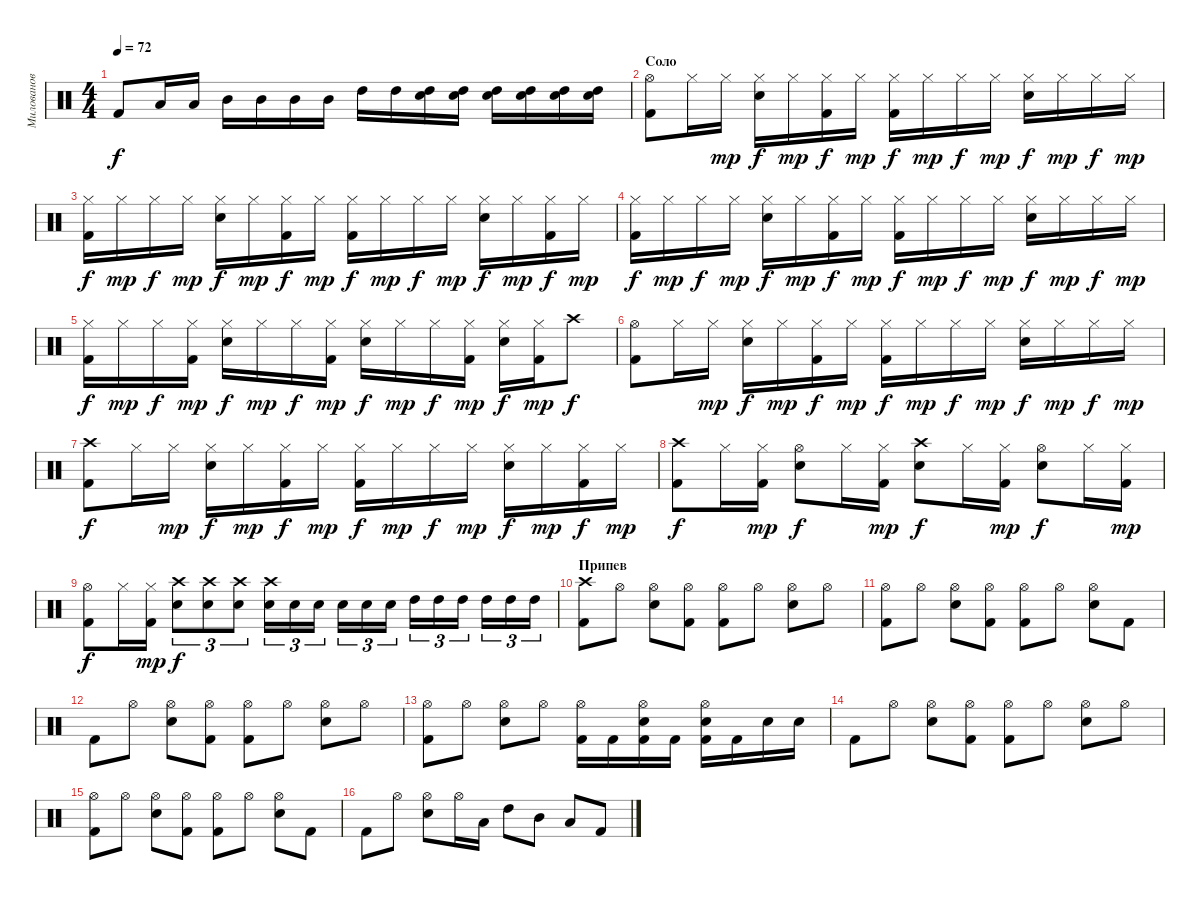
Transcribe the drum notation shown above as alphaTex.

\track ("Милованов" "Милованов") {instrument percussion}
\staff {score}
\articulation defaults
\ts (4 4)
\tempo 72
\clef neutral
\ks c "Kick (hit) 2".8{dy f} "Low Tom (hit)".16 "Low Tom (hit)".16 "Mid Tom (hit)".16 "Mid Tom (hit)".16 "Mid Tom (hit)".16 "Mid Tom (hit)".16 "High Tom (hit)".16 "High Tom (hit)".16
("High Tom (hit)" "Electric Snare (hit)").16 ("High Tom (hit)" "Electric Snare (hit)").16 ("High Tom (hit)" "Electric Snare (hit)").16 ("High Tom (hit)" "Electric Snare (hit)").16 ("High Tom (hit)" "Electric Snare (hit)").16 ("High Tom (hit)" "Electric Snare (hit)").16 |
\section ("" "Соло")
("Hi-Hat (open)" "Kick (hit) 2").8 "Hi-Hat (closed)".16 "Hi-Hat (closed)".16{dy mp} ("Hi-Hat (closed)" "Electric Snare (hit)").16{dy f} "Hi-Hat (closed)".16{dy mp} ("Hi-Hat (closed)" "Kick (hit) 2").16{dy f} "Hi-Hat (closed)".16{dy mp} ("Hi-Hat (closed)" "Kick (hit) 2").16{dy f} "Hi-Hat (closed)".16{dy mp} "Hi-Hat (closed)".16{dy f} "Hi-Hat (closed)".16{dy mp} ("Hi-Hat (closed)" "Electric Snare (hit)").16{dy f} "Hi-Hat (closed)".16{dy mp} "Hi-Hat (closed)".16{dy f} "Hi-Hat (closed)".16{dy mp} |
("Hi-Hat (closed)" "Kick (hit) 2").16{dy f} "Hi-Hat (closed)".16{dy mp} "Hi-Hat (closed)".16{dy f} "Hi-Hat (closed)".16{dy mp} ("Hi-Hat (closed)" "Electric Snare (hit)").16{dy f} "Hi-Hat (closed)".16{dy mp} ("Hi-Hat (closed)" "Kick (hit) 2").16{dy f} "Hi-Hat (closed)".16{dy mp} ("Hi-Hat (closed)" "Kick (hit) 2").16{dy f} "Hi-Hat (closed)".16{dy mp} "Hi-Hat (closed)".16{dy f} "Hi-Hat (closed)".16{dy mp} ("Hi-Hat (closed)" "Electric Snare (hit)").16{dy f} "Hi-Hat (closed)".16{dy mp} ("Hi-Hat (closed)" "Kick (hit) 2").16{dy f} "Hi-Hat (closed)".16{dy mp} |
("Hi-Hat (closed)" "Kick (hit) 2").16{dy f} "Hi-Hat (closed)".16{dy mp} "Hi-Hat (closed)".16{dy f} "Hi-Hat (closed)".16{dy mp} ("Hi-Hat (closed)" "Electric Snare (hit)").16{dy f} "Hi-Hat (closed)".16{dy mp} ("Hi-Hat (closed)" "Kick (hit) 2").16{dy f} "Hi-Hat (closed)".16{dy mp} ("Hi-Hat (closed)" "Kick (hit) 2").16{dy f} "Hi-Hat (closed)".16{dy mp} "Hi-Hat (closed)".16{dy f} "Hi-Hat (closed)".16{dy mp} ("Hi-Hat (closed)" "Electric Snare (hit)").16{dy f} "Hi-Hat (closed)".16{dy mp} "Hi-Hat (closed)".16{dy f} "Hi-Hat (closed)".16{dy mp} |
("Hi-Hat (closed)" "Kick (hit) 2").16{dy f} "Hi-Hat (closed)".16{dy mp} "Hi-Hat (closed)".16{dy f} ("Hi-Hat (closed)" "Kick (hit) 2").16{dy mp} ("Hi-Hat (closed)" "Electric Snare (hit)").16{dy f} "Hi-Hat (closed)".16{dy mp} "Hi-Hat (closed)".16{dy f} ("Hi-Hat (closed)" "Kick (hit) 2").16{dy mp} ("Hi-Hat (closed)" "Electric Snare (hit)").16{dy f} "Hi-Hat (closed)".16{dy mp} "Hi-Hat (closed)".16{dy f} ("Hi-Hat (closed)" "Kick (hit) 2").16{dy mp} ("Hi-Hat (closed)" "Electric Snare (hit)").16{dy f} ("Hi-Hat (closed)" "Kick (hit) 2").16{dy mp} "Crash high (hit)".8{dy f} |
("Hi-Hat (open)" "Kick (hit) 2").8 "Hi-Hat (closed)".16 "Hi-Hat (closed)".16{dy mp} ("Hi-Hat (closed)" "Electric Snare (hit)").16{dy f} "Hi-Hat (closed)".16{dy mp} ("Hi-Hat (closed)" "Kick (hit) 2").16{dy f} "Hi-Hat (closed)".16{dy mp} ("Hi-Hat (closed)" "Kick (hit) 2").16{dy f} "Hi-Hat (closed)".16{dy mp} "Hi-Hat (closed)".16{dy f} "Hi-Hat (closed)".16{dy mp} ("Hi-Hat (closed)" "Electric Snare (hit)").16{dy f} "Hi-Hat (closed)".16{dy mp} "Hi-Hat (closed)".16{dy f} "Hi-Hat (closed)".16{dy mp} |
("Crash high (hit)" "Kick (hit) 2").8{dy f} "Hi-Hat (closed)".16 "Hi-Hat (closed)".16{dy mp} ("Hi-Hat (closed)" "Electric Snare (hit)").16{dy f} "Hi-Hat (closed)".16{dy mp} ("Hi-Hat (closed)" "Kick (hit) 2").16{dy f} "Hi-Hat (closed)".16{dy mp} ("Hi-Hat (closed)" "Kick (hit) 2").16{dy f} "Hi-Hat (closed)".16{dy mp} "Hi-Hat (closed)".16{dy f} "Hi-Hat (closed)".16{dy mp} ("Hi-Hat (closed)" "Electric Snare (hit)").16{dy f} "Hi-Hat (closed)".16{dy mp} ("Hi-Hat (closed)" "Kick (hit) 2").16{dy f} "Hi-Hat (closed)".16{dy mp} |
("Crash high (hit)" "Kick (hit) 2").8{dy f} "Hi-Hat (closed)".16 ("Hi-Hat (closed)" "Kick (hit) 2").16{dy mp} ("Hi-Hat (open)" "Electric Snare (hit)").8{dy f} "Hi-Hat (closed)".16 ("Hi-Hat (closed)" "Kick (hit) 2").16{dy mp} ("Crash high (hit)" "Electric Snare (hit)").8{dy f} "Hi-Hat (closed)".16 ("Hi-Hat (closed)" "Kick (hit) 2").16{dy mp} ("Hi-Hat (open)" "Electric Snare (hit)").8{dy f} "Hi-Hat (closed)".16 ("Hi-Hat (closed)" "Kick (hit) 2").16{dy mp} |
("Hi-Hat (open)" "Kick (hit) 2").8{dy f} "Hi-Hat (closed)".16 ("Hi-Hat (closed)" "Kick (hit) 2").16{dy mp} ("Crash high (hit)" "Electric Snare (hit)").8{tu (3 2) dy f} ("Crash high (hit)" "Electric Snare (hit)").8{tu (3 2)} ("Crash high (hit)" "Electric Snare (hit)").8{tu (3 2)} ("Crash high (hit)" "Electric Snare (hit)").16{tu (3 2)} "Electric Snare (hit)".16{tu (3 2)} "Electric Snare (hit)".16{tu (3 2)} "Electric Snare (hit)".16{tu (3 2)} "Electric Snare (hit)".16{tu (3 2)} "Electric Snare (hit)".16{tu (3 2)} "High Tom (hit)".16{tu (3 2)} "High Tom (hit)".16{tu (3 2)} "High Tom (hit)".16{tu (3 2)} "High Tom (hit)".16{tu (3 2)} "High Tom (hit)".16{tu (3 2)} "High Tom (hit)".16{tu (3 2)} |
\section ("" "Припев")
("Crash high (hit)" "Kick (hit) 2").8 "Hi-Hat (open)".8 ("Hi-Hat (open)" "Electric Snare (hit)").8 ("Hi-Hat (open)" "Kick (hit) 2").8 ("Hi-Hat (open)" "Kick (hit) 2").8 "Hi-Hat (open)".8 ("Hi-Hat (open)" "Electric Snare (hit)").8 "Hi-Hat (open)".8 |
("Hi-Hat (open)" "Kick (hit) 2").8 "Hi-Hat (open)".8 ("Hi-Hat (open)" "Electric Snare (hit)").8 ("Hi-Hat (open)" "Kick (hit) 2").8 ("Hi-Hat (open)" "Kick (hit) 2").8 "Hi-Hat (open)".8 ("Hi-Hat (open)" "Electric Snare (hit)").8 "Kick (hit) 2".8 |
"Kick (hit) 2".8 "Hi-Hat (open)".8 ("Hi-Hat (open)" "Electric Snare (hit)").8 ("Hi-Hat (open)" "Kick (hit) 2").8 ("Hi-Hat (open)" "Kick (hit) 2").8 "Hi-Hat (open)".8 ("Hi-Hat (open)" "Electric Snare (hit)").8 "Hi-Hat (open)".8 |
("Hi-Hat (open)" "Kick (hit) 2").8 "Hi-Hat (open)".8 ("Hi-Hat (open)" "Electric Snare (hit)").8 "Hi-Hat (open)".8 ("Hi-Hat (open)" "Kick (hit) 2").16 "Kick (hit) 2".16 ("Hi-Hat (open)" "Electric Snare (hit)" "Kick (hit) 2").16 "Kick (hit) 2".16 ("Hi-Hat (open)" "Electric Snare (hit)" "Kick (hit) 2").16 "Kick (hit) 2".16 "Electric Snare (hit)".16 "Electric Snare (hit)".16 |
"Kick (hit) 2".8 "Hi-Hat (open)".8 ("Hi-Hat (open)" "Electric Snare (hit)").8 ("Hi-Hat (open)" "Kick (hit) 2").8 ("Hi-Hat (open)" "Kick (hit) 2").8 "Hi-Hat (open)".8 ("Hi-Hat (open)" "Electric Snare (hit)").8 "Hi-Hat (open)".8 |
("Hi-Hat (open)" "Kick (hit) 2").8 "Hi-Hat (open)".8 ("Hi-Hat (open)" "Electric Snare (hit)").8 ("Hi-Hat (open)" "Kick (hit) 2").8 ("Hi-Hat (open)" "Kick (hit) 2").8 "Hi-Hat (open)".8 ("Hi-Hat (open)" "Electric Snare (hit)").8 "Kick (hit) 2".8 |
"Kick (hit) 2".8 "Hi-Hat (open)".8 ("Hi-Hat (open)" "Electric Snare (hit)").8 "Hi-Hat (open)".16 "Low Tom (hit)".16 "High Tom (hit)".8 "Mid Tom (hit)".8 "Low Tom (hit)".8 "Kick (hit) 2".8
